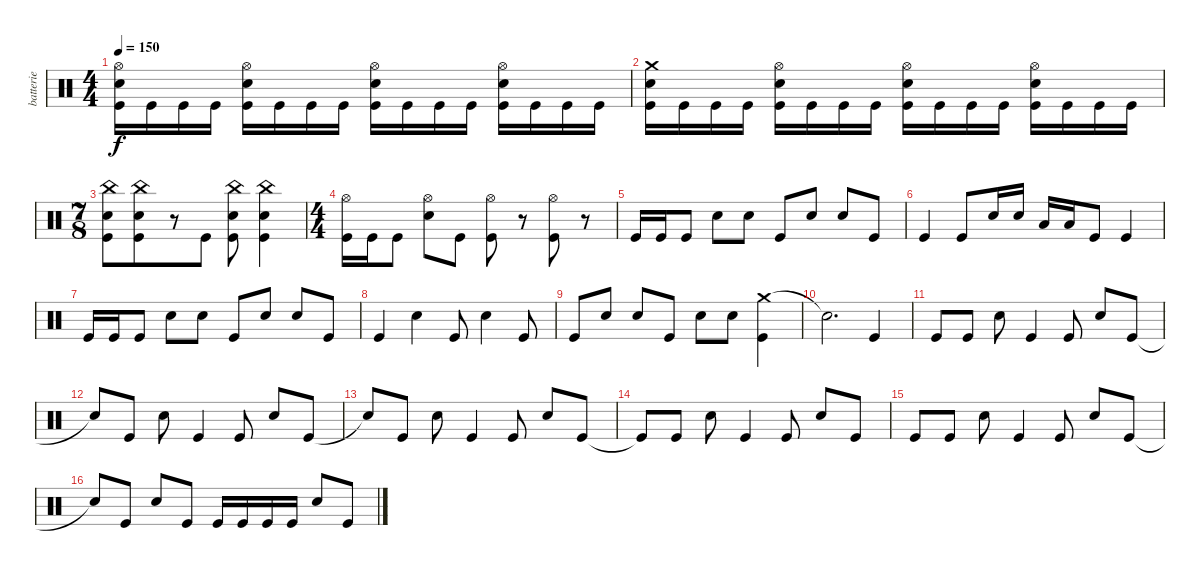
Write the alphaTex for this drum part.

\track ("batterie" "batterie") {instrument percussion}
\staff {score}
\articulation defaults
\ts (4 4)
\tempo 150
\clef neutral
\ks c
("Hi-Hat (open)" "Snare (hit) 2" "Kick (hit)").16{dy f} "Kick (hit)".16 "Kick (hit)".16 "Kick (hit)".16 ("Hi-Hat (open)" "Snare (hit) 2" "Kick (hit)").16 "Kick (hit)".16 "Kick (hit)".16 "Kick (hit)".16 ("Hi-Hat (open)" "Snare (hit) 2" "Kick (hit)").16 "Kick (hit)".16 "Kick (hit)".16 "Kick (hit)".16 ("Hi-Hat (open)" "Snare (hit) 2" "Kick (hit)").16 "Kick (hit)".16 "Kick (hit)".16 "Kick (hit)".16 |
("Crash medium (hit)" "Snare (hit) 2" "Kick (hit)").16 "Kick (hit)".16 "Kick (hit)".16 "Kick (hit)".16 ("Hi-Hat (open)" "Snare (hit) 2" "Kick (hit)").16 "Kick (hit)".16 "Kick (hit)".16 "Kick (hit)".16 ("Hi-Hat (open)" "Snare (hit) 2" "Kick (hit)").16 "Kick (hit)".16 "Kick (hit)".16 "Kick (hit)".16 ("Hi-Hat (open)" "Snare (hit) 2" "Kick (hit)").16 "Kick (hit)".16 "Kick (hit)".16 "Kick (hit)".16 |
\ts (7 8)
("Snare (hit) 2" "China (hit)" "Kick (hit)").8 ("Snare (hit) 2" "China (hit)" "Kick (hit)").8 r.8 "Kick (hit)".8 ("Snare (hit) 2" "China (hit)" "Kick (hit)").8 ("Snare (hit) 2" "China (hit)" "Kick (hit)").4 |
\ts (4 4)
("Hi-Hat (open)" "Kick (hit)").16 "Kick (hit)".16 "Kick (hit)".8 ("Hi-Hat (open)" "Snare (hit) 2").8 "Kick (hit)".8 ("Hi-Hat (open)" "Kick (hit)").8 r.8 ("Hi-Hat (open)" "Kick (hit)").8 r.8 |
"Kick (hit)".16 "Kick (hit)".16 "Kick (hit)".8 "Snare (hit) 2".8 "Snare (hit) 2".8 "Kick (hit)".8 "Snare (hit) 2".8 "Snare (hit) 2".8 "Kick (hit)".8 |
"Kick (hit)".4 "Kick (hit)".8 "Snare (hit) 2".16 "Snare (hit) 2".16 "Low Floor Tom (hit)".16 "Low Floor Tom (hit)".16 "Kick (hit)".8 "Kick (hit)".4 |
"Kick (hit)".16 "Kick (hit)".16 "Kick (hit)".8 "Snare (hit) 2".8 "Snare (hit) 2".8 "Kick (hit)".8 "Snare (hit) 2".8 "Snare (hit) 2".8 "Kick (hit)".8 |
"Kick (hit)".4 "Snare (hit) 2".4 "Kick (hit)".8 "Snare (hit) 2".4 "Kick (hit)".8 |
"Kick (hit)".8 "Snare (hit) 2".8 "Snare (hit) 2".8 "Kick (hit)".8 "Snare (hit) 2".8 "Snare (hit) 2".8 ("Crash medium (hit)" "Kick (hit)").4 |
"Snare (hit)"{t}.2{d} "Kick (hit)".4 |
"Kick (hit)".8 "Kick (hit)".8 "Snare (hit) 2".8 "Kick (hit)".4 "Kick (hit)".8 "Snare (hit) 2".8 "Kick (hit)".8 |
"Snare (hit)"{t}.8 "Kick (hit)".8 "Snare (hit) 2".8 "Kick (hit)".4 "Kick (hit)".8 "Snare (hit) 2".8 "Kick (hit)".8 |
"Snare (hit)"{t}.8 "Kick (hit)".8 "Snare (hit) 2".8 "Kick (hit)".4 "Kick (hit)".8 "Snare (hit) 2".8 "Kick (hit)".8 |
"Kick (hit)"{t}.8 "Kick (hit)".8 "Snare (hit) 2".8 "Kick (hit)".4 "Kick (hit)".8 "Snare (hit) 2".8 "Kick (hit)".8 |
"Kick (hit)".8 "Kick (hit)".8 "Snare (hit) 2".8 "Kick (hit)".4 "Kick (hit)".8 "Snare (hit) 2".8 "Kick (hit)".8 |
"Snare (hit)"{t}.8 "Kick (hit)".8 "Snare (hit) 2".8 "Kick (hit)".8 "Kick (hit)".16 "Kick (hit)".16 "Kick (hit)".16 "Kick (hit)".16 "Snare (hit) 2".8 "Kick (hit)".8
